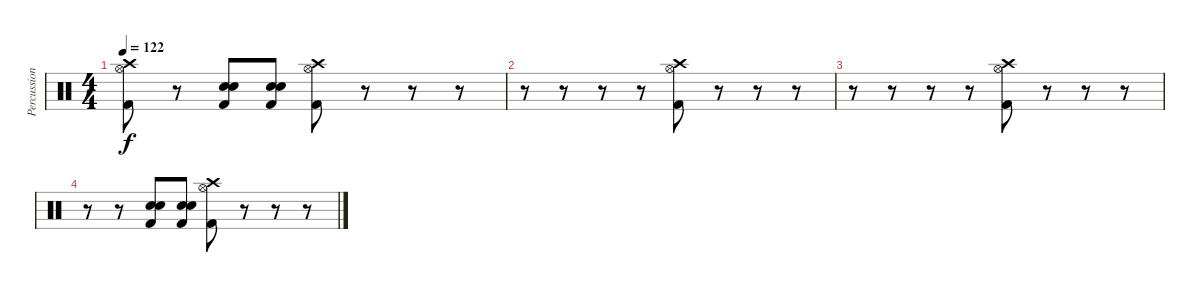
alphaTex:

\track ("Percussion" "Percussion") {instrument percussion}
\staff {score}
\articulation defaults
\ts (4 4)
\tempo 122
\clef neutral
\ks c
("Hi-Hat (open)" "Crash high (hit)" "Kick (hit) 2").8{dy f} r.8 ("Snare (hit) 2" "Snare (hit) 2" "Kick (hit) 2").8 ("Snare (hit) 2" "Snare (hit) 2" "Kick (hit) 2").8 ("Hi-Hat (open)" "Crash high (hit)" "Kick (hit) 2").8 r.8 r.8 r.8 |
r.8 r.8 r.8 r.8 ("Hi-Hat (open)" "Crash high (hit)" "Kick (hit) 2").8 r.8 r.8 r.8 |
r.8 r.8 r.8 r.8 ("Hi-Hat (open)" "Crash high (hit)" "Kick (hit) 2").8 r.8 r.8 r.8 |
r.8 r.8 ("Snare (hit) 2" "Snare (hit) 2" "Kick (hit) 2").8 ("Snare (hit) 2" "Snare (hit) 2" "Kick (hit) 2").8 ("Hi-Hat (open)" "Crash high (hit)" "Kick (hit) 2").8 r.8 r.8 r.8
